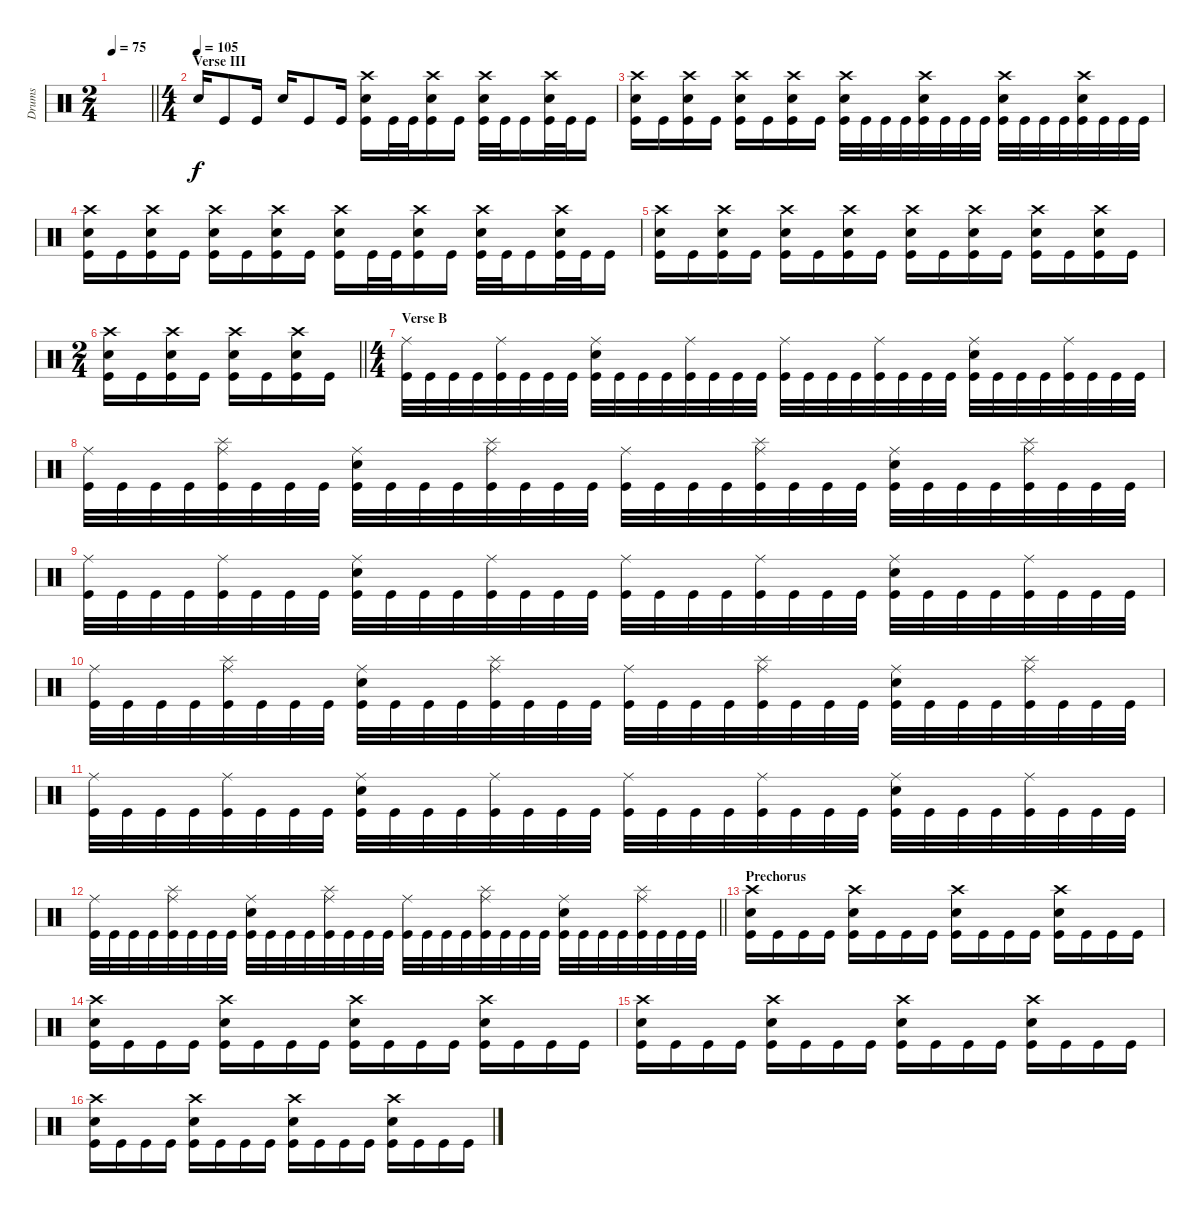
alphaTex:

\track ("Drums" "Drums") {instrument percussion}
\staff {score}
\articulation defaults
\ts (2 4)
\tempo 75
\clef neutral
\barLineRight lightlight
\ks c
|
\ts (4 4)
\section ("" "Verse III")
\tempo (105)
"Snare (hit) 2".16 "Kick (hit)".8 "Kick (hit)".16 "Snare (hit) 2".16 "Kick (hit)".8 "Kick (hit)".16 ("Crash high (hit)" "Snare (hit) 2" "Kick (hit)").16 "Kick (hit)".32 "Kick (hit)".32 ("Crash high (hit)" "Snare (hit) 2" "Kick (hit)").16 "Kick (hit)".16 ("Crash high (hit)" "Snare (hit) 2" "Kick (hit)").32 "Kick (hit)".32 "Kick (hit)".16 ("Crash high (hit)" "Snare (hit) 2" "Kick (hit)").32 "Kick (hit)".32 "Kick (hit)".16 |
("Crash high (hit)" "Snare (hit) 2" "Kick (hit)").16 "Kick (hit)".16 ("Crash high (hit)" "Snare (hit) 2" "Kick (hit)").16 "Kick (hit)".16 ("Crash high (hit)" "Snare (hit) 2" "Kick (hit)").16 "Kick (hit)".16 ("Crash high (hit)" "Snare (hit) 2" "Kick (hit)").16 "Kick (hit)".16 ("Crash high (hit)" "Snare (hit) 2" "Kick (hit)").32 "Kick (hit)".32 "Kick (hit)".32 "Kick (hit)".32 ("Crash high (hit)" "Snare (hit) 2" "Kick (hit)").32 "Kick (hit)".32 "Kick (hit)".32 "Kick (hit)".32 ("Crash high (hit)" "Snare (hit) 2" "Kick (hit)").32 "Kick (hit)".32 "Kick (hit)".32 "Kick (hit)".32 ("Crash high (hit)" "Snare (hit) 2" "Kick (hit)").32 "Kick (hit)".32 "Kick (hit)".32 "Kick (hit)".32 |
("Crash high (hit)" "Snare (hit) 2" "Kick (hit)").16 "Kick (hit)".16 ("Crash high (hit)" "Snare (hit) 2" "Kick (hit)").16 "Kick (hit)".16 ("Crash high (hit)" "Snare (hit) 2" "Kick (hit)").16 "Kick (hit)".16 ("Crash high (hit)" "Snare (hit) 2" "Kick (hit)").16 "Kick (hit)".16 ("Crash high (hit)" "Snare (hit) 2" "Kick (hit)").16 "Kick (hit)".32 "Kick (hit)".32 ("Crash high (hit)" "Snare (hit) 2" "Kick (hit)").16 "Kick (hit)".16 ("Crash high (hit)" "Snare (hit) 2" "Kick (hit)").32 "Kick (hit)".32 "Kick (hit)".16 ("Crash high (hit)" "Snare (hit) 2" "Kick (hit)").32 "Kick (hit)".32 "Kick (hit)".16 |
("Crash high (hit)" "Snare (hit) 2" "Kick (hit)").16 "Kick (hit)".16 ("Crash high (hit)" "Snare (hit) 2" "Kick (hit)").16 "Kick (hit)".16 ("Crash high (hit)" "Snare (hit) 2" "Kick (hit)").16 "Kick (hit)".16 ("Crash high (hit)" "Snare (hit) 2" "Kick (hit)").16 "Kick (hit)".16 ("Crash high (hit)" "Snare (hit) 2" "Kick (hit)").16 "Kick (hit)".16 ("Crash high (hit)" "Snare (hit) 2" "Kick (hit)").16 "Kick (hit)".16 ("Crash high (hit)" "Snare (hit) 2" "Kick (hit)").16 "Kick (hit)".16 ("Crash high (hit)" "Snare (hit) 2" "Kick (hit)").16 "Kick (hit)".16 |
\ts (2 4)
\barLineRight lightlight
("Crash high (hit)" "Snare (hit) 2" "Kick (hit)").16 "Kick (hit)".16 ("Crash high (hit)" "Snare (hit) 2" "Kick (hit)").16 "Kick (hit)".16 ("Crash high (hit)" "Snare (hit) 2" "Kick (hit)").16 "Kick (hit)".16 ("Crash high (hit)" "Snare (hit) 2" "Kick (hit)").16 "Kick (hit)".16 |
\ts (4 4)
\section ("" "Verse B")
("Ride (middle)" "Kick (hit)").32 "Kick (hit)".32 "Kick (hit)".32 "Kick (hit)".32 ("Ride (middle)" "Kick (hit)").32 "Kick (hit)".32 "Kick (hit)".32 "Kick (hit)".32 ("Ride (middle)" "Snare (hit) 2" "Kick (hit)").32 "Kick (hit)".32 "Kick (hit)".32 "Kick (hit)".32 ("Ride (middle)" "Kick (hit)").32 "Kick (hit)".32 "Kick (hit)".32 "Kick (hit)".32 ("Ride (middle)" "Kick (hit)").32 "Kick (hit)".32 "Kick (hit)".32 "Kick (hit)".32 ("Ride (middle)" "Kick (hit)").32 "Kick (hit)".32 "Kick (hit)".32 "Kick (hit)".32 ("Ride (middle)" "Snare (hit) 2" "Kick (hit)").32 "Kick (hit)".32 "Kick (hit)".32 "Kick (hit)".32 ("Ride (middle)" "Kick (hit)").32 "Kick (hit)".32 "Kick (hit)".32 "Kick (hit)".32 |
("Ride (middle)" "Kick (hit)").32 "Kick (hit)".32 "Kick (hit)".32 "Kick (hit)".32 ("Ride (middle)" "Splash (hit)" "Kick (hit)").32 "Kick (hit)".32 "Kick (hit)".32 "Kick (hit)".32 ("Ride (middle)" "Snare (hit) 2" "Kick (hit)").32 "Kick (hit)".32 "Kick (hit)".32 "Kick (hit)".32 ("Ride (middle)" "Splash (hit)" "Kick (hit)").32 "Kick (hit)".32 "Kick (hit)".32 "Kick (hit)".32 ("Ride (middle)" "Kick (hit)").32 "Kick (hit)".32 "Kick (hit)".32 "Kick (hit)".32 ("Ride (middle)" "Splash (hit)" "Kick (hit)").32 "Kick (hit)".32 "Kick (hit)".32 "Kick (hit)".32 ("Ride (middle)" "Snare (hit) 2" "Kick (hit)").32 "Kick (hit)".32 "Kick (hit)".32 "Kick (hit)".32 ("Ride (middle)" "Splash (hit)" "Kick (hit)").32 "Kick (hit)".32 "Kick (hit)".32 "Kick (hit)".32 |
("Ride (middle)" "Kick (hit)").32 "Kick (hit)".32 "Kick (hit)".32 "Kick (hit)".32 ("Ride (middle)" "Kick (hit)").32 "Kick (hit)".32 "Kick (hit)".32 "Kick (hit)".32 ("Ride (middle)" "Snare (hit) 2" "Kick (hit)").32 "Kick (hit)".32 "Kick (hit)".32 "Kick (hit)".32 ("Ride (middle)" "Kick (hit)").32 "Kick (hit)".32 "Kick (hit)".32 "Kick (hit)".32 ("Ride (middle)" "Kick (hit)").32 "Kick (hit)".32 "Kick (hit)".32 "Kick (hit)".32 ("Ride (middle)" "Kick (hit)").32 "Kick (hit)".32 "Kick (hit)".32 "Kick (hit)".32 ("Ride (middle)" "Snare (hit) 2" "Kick (hit)").32 "Kick (hit)".32 "Kick (hit)".32 "Kick (hit)".32 ("Ride (middle)" "Kick (hit)").32 "Kick (hit)".32 "Kick (hit)".32 "Kick (hit)".32 |
("Ride (middle)" "Kick (hit)").32 "Kick (hit)".32 "Kick (hit)".32 "Kick (hit)".32 ("Ride (middle)" "Splash (hit)" "Kick (hit)").32 "Kick (hit)".32 "Kick (hit)".32 "Kick (hit)".32 ("Ride (middle)" "Snare (hit) 2" "Kick (hit)").32 "Kick (hit)".32 "Kick (hit)".32 "Kick (hit)".32 ("Ride (middle)" "Splash (hit)" "Kick (hit)").32 "Kick (hit)".32 "Kick (hit)".32 "Kick (hit)".32 ("Ride (middle)" "Kick (hit)").32 "Kick (hit)".32 "Kick (hit)".32 "Kick (hit)".32 ("Ride (middle)" "Splash (hit)" "Kick (hit)").32 "Kick (hit)".32 "Kick (hit)".32 "Kick (hit)".32 ("Ride (middle)" "Snare (hit) 2" "Kick (hit)").32 "Kick (hit)".32 "Kick (hit)".32 "Kick (hit)".32 ("Ride (middle)" "Splash (hit)" "Kick (hit)").32 "Kick (hit)".32 "Kick (hit)".32 "Kick (hit)".32 |
("Ride (middle)" "Kick (hit)").32 "Kick (hit)".32 "Kick (hit)".32 "Kick (hit)".32 ("Ride (middle)" "Kick (hit)").32 "Kick (hit)".32 "Kick (hit)".32 "Kick (hit)".32 ("Ride (middle)" "Snare (hit) 2" "Kick (hit)").32 "Kick (hit)".32 "Kick (hit)".32 "Kick (hit)".32 ("Ride (middle)" "Kick (hit)").32 "Kick (hit)".32 "Kick (hit)".32 "Kick (hit)".32 ("Ride (middle)" "Kick (hit)").32 "Kick (hit)".32 "Kick (hit)".32 "Kick (hit)".32 ("Ride (middle)" "Kick (hit)").32 "Kick (hit)".32 "Kick (hit)".32 "Kick (hit)".32 ("Ride (middle)" "Snare (hit) 2" "Kick (hit)").32 "Kick (hit)".32 "Kick (hit)".32 "Kick (hit)".32 ("Ride (middle)" "Kick (hit)").32 "Kick (hit)".32 "Kick (hit)".32 "Kick (hit)".32 |
\barLineRight lightlight
("Ride (middle)" "Kick (hit)").32 "Kick (hit)".32 "Kick (hit)".32 "Kick (hit)".32 ("Ride (middle)" "Splash (hit)" "Kick (hit)").32 "Kick (hit)".32 "Kick (hit)".32 "Kick (hit)".32 ("Ride (middle)" "Snare (hit) 2" "Kick (hit)").32 "Kick (hit)".32 "Kick (hit)".32 "Kick (hit)".32 ("Ride (middle)" "Splash (hit)" "Kick (hit)").32 "Kick (hit)".32 "Kick (hit)".32 "Kick (hit)".32 ("Ride (middle)" "Kick (hit)").32 "Kick (hit)".32 "Kick (hit)".32 "Kick (hit)".32 ("Ride (middle)" "Splash (hit)" "Kick (hit)").32 "Kick (hit)".32 "Kick (hit)".32 "Kick (hit)".32 ("Ride (middle)" "Snare (hit) 2" "Kick (hit)").32 "Kick (hit)".32 "Kick (hit)".32 "Kick (hit)".32 ("Ride (middle)" "Splash (hit)" "Kick (hit)").32 "Kick (hit)".32 "Kick (hit)".32 "Kick (hit)".32 |
\section ("" "Prechorus")
("Crash high (hit)" "Snare (hit) 2" "Kick (hit)").16 "Kick (hit)".16 "Kick (hit)".16 "Kick (hit)".16 ("Crash high (hit)" "Snare (hit) 2" "Kick (hit)").16 "Kick (hit)".16 "Kick (hit)".16 "Kick (hit)".16 ("Crash high (hit)" "Snare (hit) 2" "Kick (hit)").16 "Kick (hit)".16 "Kick (hit)".16 "Kick (hit)".16 ("Crash high (hit)" "Snare (hit) 2" "Kick (hit)").16 "Kick (hit)".16 "Kick (hit)".16 "Kick (hit)".16 |
("Crash high (hit)" "Snare (hit) 2" "Kick (hit)").16 "Kick (hit)".16 "Kick (hit)".16 "Kick (hit)".16 ("Crash high (hit)" "Snare (hit) 2" "Kick (hit)").16 "Kick (hit)".16 "Kick (hit)".16 "Kick (hit)".16 ("Crash high (hit)" "Snare (hit) 2" "Kick (hit)").16 "Kick (hit)".16 "Kick (hit)".16 "Kick (hit)".16 ("Crash high (hit)" "Snare (hit) 2" "Kick (hit)").16 "Kick (hit)".16 "Kick (hit)".16 "Kick (hit)".16 |
("Crash high (hit)" "Snare (hit) 2" "Kick (hit)").16 "Kick (hit)".16 "Kick (hit)".16 "Kick (hit)".16 ("Crash high (hit)" "Snare (hit) 2" "Kick (hit)").16 "Kick (hit)".16 "Kick (hit)".16 "Kick (hit)".16 ("Crash high (hit)" "Snare (hit) 2" "Kick (hit)").16 "Kick (hit)".16 "Kick (hit)".16 "Kick (hit)".16 ("Crash high (hit)" "Snare (hit) 2" "Kick (hit)").16 "Kick (hit)".16 "Kick (hit)".16 "Kick (hit)".16 |
("Crash high (hit)" "Snare (hit) 2" "Kick (hit)").16 "Kick (hit)".16 "Kick (hit)".16 "Kick (hit)".16 ("Crash high (hit)" "Snare (hit) 2" "Kick (hit)").16 "Kick (hit)".16 "Kick (hit)".16 "Kick (hit)".16 ("Crash high (hit)" "Snare (hit) 2" "Kick (hit)").16 "Kick (hit)".16 "Kick (hit)".16 "Kick (hit)".16 ("Crash high (hit)" "Snare (hit) 2" "Kick (hit)").16 "Kick (hit)".16 "Kick (hit)".16 "Kick (hit)".16
